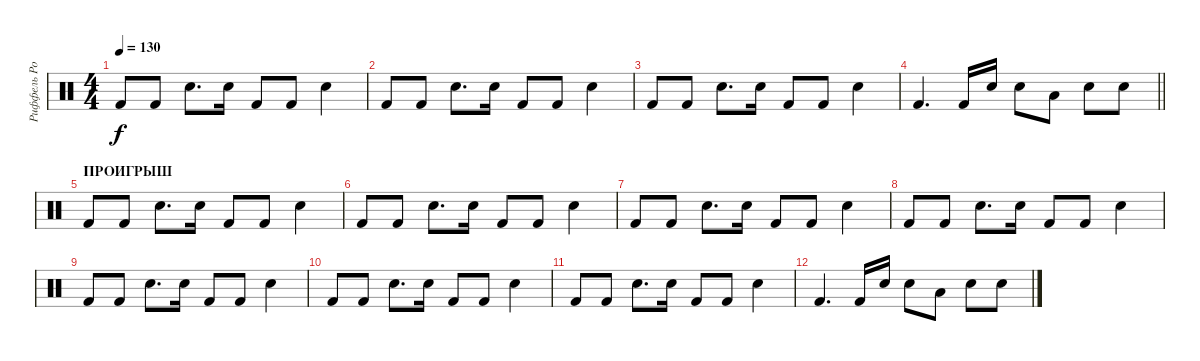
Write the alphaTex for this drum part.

\track ("Риффель Роман(Главные)" "Риффель Ро") {instrument percussion}
\staff {score}
\articulation defaults
\ts (4 4)
\tempo 130
\clef neutral
\ks c "Kick (hit) 2".8{dy f} "Kick (hit) 2".8 "Electric Snare (hit)".8{d} "Electric Snare (hit)".16 "Kick (hit) 2".8 "Kick (hit) 2".8 "Electric Snare (hit)".4
|
"Kick (hit) 2".8 "Kick (hit) 2".8 "Electric Snare (hit)".8{d} "Electric Snare (hit)".16 "Kick (hit) 2".8 "Kick (hit) 2".8 "Electric Snare (hit)".4 |
"Kick (hit) 2".8 "Kick (hit) 2".8 "Electric Snare (hit)".8{d} "Electric Snare (hit)".16 "Kick (hit) 2".8 "Kick (hit) 2".8 "Electric Snare (hit)".4 |
\barLineRight lightlight "Kick (hit) 2".4{d} "Kick (hit) 2".16 "Electric Snare (hit)".16 "Electric Snare (hit)".8 "Low Tom (hit)".8 "Electric Snare (hit)".8 "Electric Snare (hit)".8
|
\section ("" "ПРОИГРЫШ")
"Kick (hit) 2".8 "Kick (hit) 2".8 "Electric Snare (hit)".8{d} "Electric Snare (hit)".16 "Kick (hit) 2".8 "Kick (hit) 2".8 "Electric Snare (hit)".4 |
"Kick (hit) 2".8 "Kick (hit) 2".8 "Electric Snare (hit)".8{d} "Electric Snare (hit)".16 "Kick (hit) 2".8 "Kick (hit) 2".8 "Electric Snare (hit)".4 |
"Kick (hit) 2".8 "Kick (hit) 2".8 "Electric Snare (hit)".8{d} "Electric Snare (hit)".16 "Kick (hit) 2".8 "Kick (hit) 2".8 "Electric Snare (hit)".4 |
"Kick (hit) 2".8 "Kick (hit) 2".8 "Electric Snare (hit)".8{d} "Electric Snare (hit)".16 "Kick (hit) 2".8 "Kick (hit) 2".8 "Electric Snare (hit)".4 |
"Kick (hit) 2".8 "Kick (hit) 2".8 "Electric Snare (hit)".8{d} "Electric Snare (hit)".16 "Kick (hit) 2".8 "Kick (hit) 2".8 "Electric Snare (hit)".4 |
"Kick (hit) 2".8 "Kick (hit) 2".8 "Electric Snare (hit)".8{d} "Electric Snare (hit)".16 "Kick (hit) 2".8 "Kick (hit) 2".8 "Electric Snare (hit)".4 |
"Kick (hit) 2".8 "Kick (hit) 2".8 "Electric Snare (hit)".8{d} "Electric Snare (hit)".16 "Kick (hit) 2".8 "Kick (hit) 2".8 "Electric Snare (hit)".4 |
"Kick (hit) 2".4{d} "Kick (hit) 2".16 "Electric Snare (hit)".16 "Electric Snare (hit)".8 "Low Tom (hit)".8 "Electric Snare (hit)".8 "Electric Snare (hit)".8
